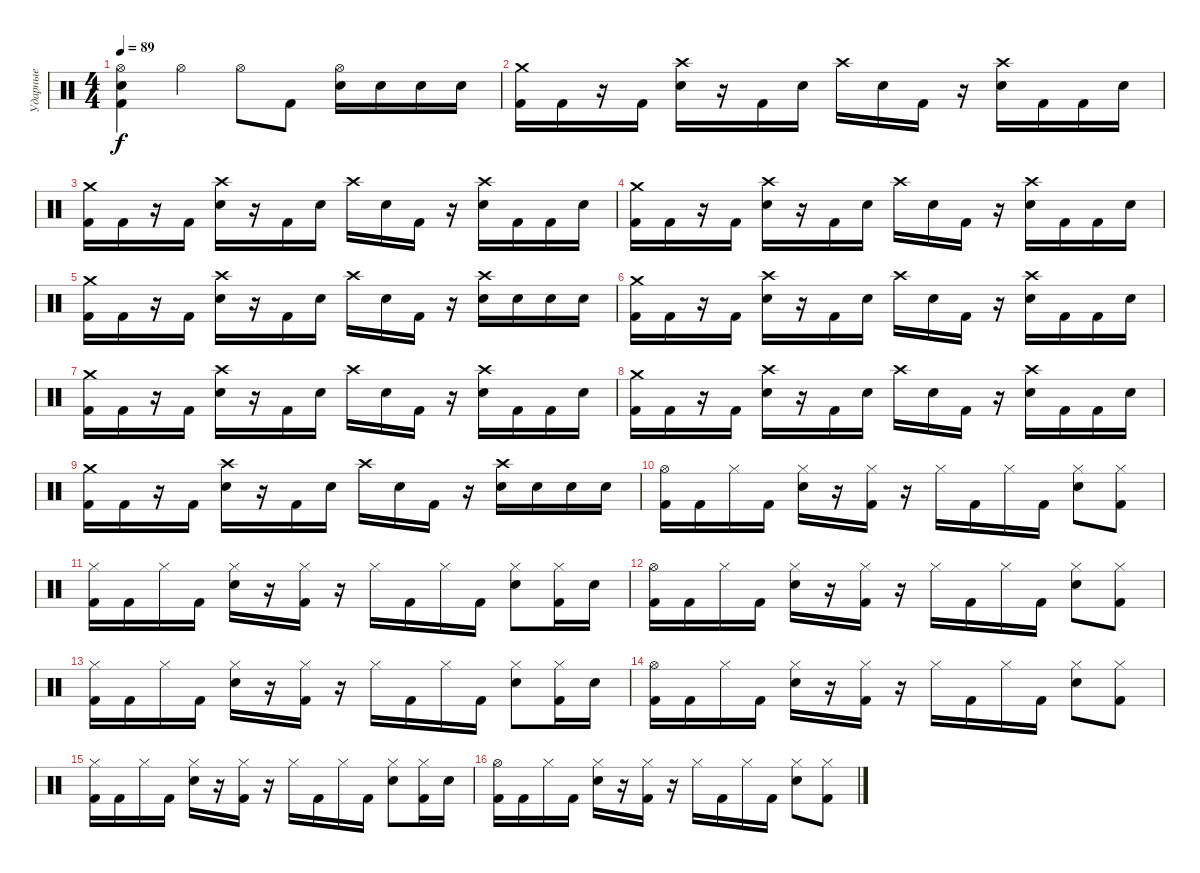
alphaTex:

\track ("Ударные" "Ударные") {instrument percussion}
\staff {score}
\articulation defaults
\ts (4 4)
\tempo 89
\clef neutral
\ks c
("Hi-Hat (open)" "Electric Snare (hit)" "Kick (hit) 2").4{dy f} "Hi-Hat (open)".4 "Hi-Hat (open)".8 "Kick (hit) 2".8 ("Hi-Hat (open)" "Electric Snare (hit)").16 "Electric Snare (hit)".16 "Electric Snare (hit)".16 "Electric Snare (hit)".16 |
("Crash medium (hit)" "Kick (hit) 2").16 "Kick (hit) 2".16 r.16 "Kick (hit) 2".16 ("Crash high (hit)" "Electric Snare (hit)").16 r.16 "Kick (hit) 2".16 "Electric Snare (hit)".16 "Crash high (hit)".16 "Electric Snare (hit)".16 "Kick (hit) 2".16 r.16 ("Crash high (hit)" "Electric Snare (hit)").16 "Kick (hit) 2".16 "Kick (hit) 2".16 "Electric Snare (hit)".16 |
("Crash medium (hit)" "Kick (hit) 2").16 "Kick (hit) 2".16 r.16 "Kick (hit) 2".16 ("Crash high (hit)" "Electric Snare (hit)").16 r.16 "Kick (hit) 2".16 "Electric Snare (hit)".16 "Crash high (hit)".16 "Electric Snare (hit)".16 "Kick (hit) 2".16 r.16 ("Crash high (hit)" "Electric Snare (hit)").16 "Kick (hit) 2".16 "Kick (hit) 2".16 "Electric Snare (hit)".16 |
("Crash medium (hit)" "Kick (hit) 2").16 "Kick (hit) 2".16 r.16 "Kick (hit) 2".16 ("Crash high (hit)" "Electric Snare (hit)").16 r.16 "Kick (hit) 2".16 "Electric Snare (hit)".16 "Crash high (hit)".16 "Electric Snare (hit)".16 "Kick (hit) 2".16 r.16 ("Crash high (hit)" "Electric Snare (hit)").16 "Kick (hit) 2".16 "Kick (hit) 2".16 "Electric Snare (hit)".16 |
("Crash medium (hit)" "Kick (hit) 2").16 "Kick (hit) 2".16 r.16 "Kick (hit) 2".16 ("Crash high (hit)" "Electric Snare (hit)").16 r.16 "Kick (hit) 2".16 "Electric Snare (hit)".16 "Crash high (hit)".16 "Electric Snare (hit)".16 "Kick (hit) 2".16 r.16 ("Crash high (hit)" "Electric Snare (hit)").16 "Electric Snare (hit)".16 "Electric Snare (hit)".16 "Electric Snare (hit)".16 |
("Crash medium (hit)" "Kick (hit) 2").16 "Kick (hit) 2".16 r.16 "Kick (hit) 2".16 ("Crash high (hit)" "Electric Snare (hit)").16 r.16 "Kick (hit) 2".16 "Electric Snare (hit)".16 "Crash high (hit)".16 "Electric Snare (hit)".16 "Kick (hit) 2".16 r.16 ("Crash high (hit)" "Electric Snare (hit)").16 "Kick (hit) 2".16 "Kick (hit) 2".16 "Electric Snare (hit)".16 |
("Crash medium (hit)" "Kick (hit) 2").16 "Kick (hit) 2".16 r.16 "Kick (hit) 2".16 ("Crash high (hit)" "Electric Snare (hit)").16 r.16 "Kick (hit) 2".16 "Electric Snare (hit)".16 "Crash high (hit)".16 "Electric Snare (hit)".16 "Kick (hit) 2".16 r.16 ("Crash high (hit)" "Electric Snare (hit)").16 "Kick (hit) 2".16 "Kick (hit) 2".16 "Electric Snare (hit)".16 |
("Crash medium (hit)" "Kick (hit) 2").16 "Kick (hit) 2".16 r.16 "Kick (hit) 2".16 ("Crash high (hit)" "Electric Snare (hit)").16 r.16 "Kick (hit) 2".16 "Electric Snare (hit)".16 "Crash high (hit)".16 "Electric Snare (hit)".16 "Kick (hit) 2".16 r.16 ("Crash high (hit)" "Electric Snare (hit)").16 "Kick (hit) 2".16 "Kick (hit) 2".16 "Electric Snare (hit)".16 |
("Crash medium (hit)" "Kick (hit) 2").16 "Kick (hit) 2".16 r.16 "Kick (hit) 2".16 ("Crash high (hit)" "Electric Snare (hit)").16 r.16 "Kick (hit) 2".16 "Electric Snare (hit)".16 "Crash high (hit)".16 "Electric Snare (hit)".16 "Kick (hit) 2".16 r.16 ("Crash high (hit)" "Electric Snare (hit)").16 "Electric Snare (hit)".16 "Electric Snare (hit)".16 "Electric Snare (hit)".16 |
("Hi-Hat (open)" "Kick (hit) 2").16 "Kick (hit) 2".16 "Hi-Hat (closed)".16 "Kick (hit) 2".16 ("Hi-Hat (closed)" "Electric Snare (hit)").16 r.16 ("Hi-Hat (closed)" "Kick (hit) 2").16 r.16 "Hi-Hat (closed)".16 "Kick (hit) 2".16 "Hi-Hat (closed)".16 "Kick (hit) 2".16 ("Hi-Hat (closed)" "Electric Snare (hit)").8 ("Hi-Hat (closed)" "Kick (hit) 2").8 |
("Hi-Hat (closed)" "Kick (hit) 2").16 "Kick (hit) 2".16 "Hi-Hat (closed)".16 "Kick (hit) 2".16 ("Hi-Hat (closed)" "Electric Snare (hit)").16 r.16 ("Hi-Hat (closed)" "Kick (hit) 2").16 r.16 "Hi-Hat (closed)".16 "Kick (hit) 2".16 "Hi-Hat (closed)".16 "Kick (hit) 2".16 ("Hi-Hat (closed)" "Electric Snare (hit)").8 ("Hi-Hat (closed)" "Kick (hit) 2").16 "Electric Snare (hit)".16 |
("Hi-Hat (open)" "Kick (hit) 2").16 "Kick (hit) 2".16 "Hi-Hat (closed)".16 "Kick (hit) 2".16 ("Hi-Hat (closed)" "Electric Snare (hit)").16 r.16 ("Hi-Hat (closed)" "Kick (hit) 2").16 r.16 "Hi-Hat (closed)".16 "Kick (hit) 2".16 "Hi-Hat (closed)".16 "Kick (hit) 2".16 ("Hi-Hat (closed)" "Electric Snare (hit)").8 ("Hi-Hat (closed)" "Kick (hit) 2").8 |
("Hi-Hat (closed)" "Kick (hit) 2").16 "Kick (hit) 2".16 "Hi-Hat (closed)".16 "Kick (hit) 2".16 ("Hi-Hat (closed)" "Electric Snare (hit)").16 r.16 ("Hi-Hat (closed)" "Kick (hit) 2").16 r.16 "Hi-Hat (closed)".16 "Kick (hit) 2".16 "Hi-Hat (closed)".16 "Kick (hit) 2".16 ("Hi-Hat (closed)" "Electric Snare (hit)").8 ("Hi-Hat (closed)" "Kick (hit) 2").16 "Electric Snare (hit)".16 |
("Hi-Hat (open)" "Kick (hit) 2").16 "Kick (hit) 2".16 "Hi-Hat (closed)".16 "Kick (hit) 2".16 ("Hi-Hat (closed)" "Electric Snare (hit)").16 r.16 ("Hi-Hat (closed)" "Kick (hit) 2").16 r.16 "Hi-Hat (closed)".16 "Kick (hit) 2".16 "Hi-Hat (closed)".16 "Kick (hit) 2".16 ("Hi-Hat (closed)" "Electric Snare (hit)").8 ("Hi-Hat (closed)" "Kick (hit) 2").8 |
("Hi-Hat (closed)" "Kick (hit) 2").16 "Kick (hit) 2".16 "Hi-Hat (closed)".16 "Kick (hit) 2".16 ("Hi-Hat (closed)" "Electric Snare (hit)").16 r.16 ("Hi-Hat (closed)" "Kick (hit) 2").16 r.16 "Hi-Hat (closed)".16 "Kick (hit) 2".16 "Hi-Hat (closed)".16 "Kick (hit) 2".16 ("Hi-Hat (closed)" "Electric Snare (hit)").8 ("Hi-Hat (closed)" "Kick (hit) 2").16 "Electric Snare (hit)".16 |
("Hi-Hat (open)" "Kick (hit) 2").16 "Kick (hit) 2".16 "Hi-Hat (closed)".16 "Kick (hit) 2".16 ("Hi-Hat (closed)" "Electric Snare (hit)").16 r.16 ("Hi-Hat (closed)" "Kick (hit) 2").16 r.16 "Hi-Hat (closed)".16 "Kick (hit) 2".16 "Hi-Hat (closed)".16 "Kick (hit) 2".16 ("Hi-Hat (closed)" "Electric Snare (hit)").8 ("Hi-Hat (closed)" "Kick (hit) 2").8
